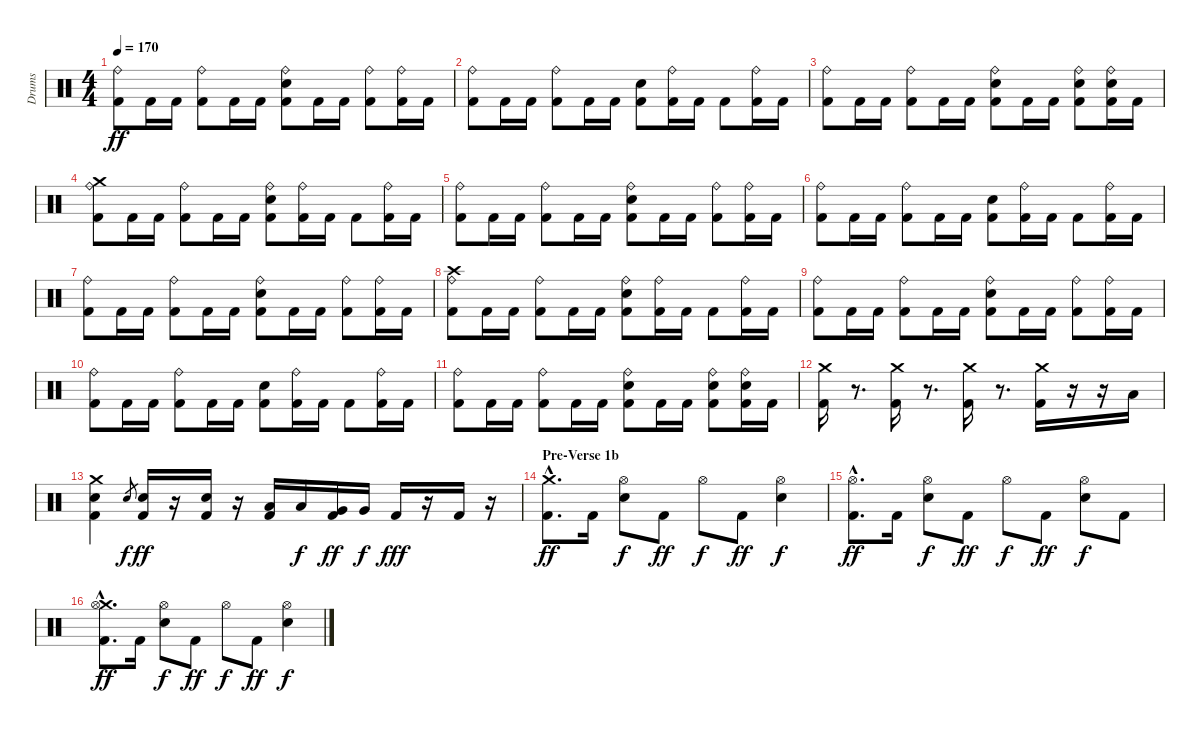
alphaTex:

\track ("Drums" "Drums") {instrument percussion}
\staff {score}
\articulation defaults
\ts (4 4)
\tempo 170
\clef neutral
\ks c
("Ride (bell)" "Kick (hit) 2").8{dy ff} "Kick (hit) 2".16 "Kick (hit) 2".16 ("Ride (bell)" "Kick (hit) 2").8 "Kick (hit) 2".16 "Kick (hit) 2".16 ("Ride (bell)" "Snare (hit) 2" "Kick (hit) 2").8 "Kick (hit) 2".16 "Kick (hit) 2".16 ("Ride (bell)" "Kick (hit) 2").8 ("Ride (bell)" "Kick (hit) 2").16 "Kick (hit) 2".16 |
("Ride (bell)" "Kick (hit) 2").8 "Kick (hit) 2".16 "Kick (hit) 2".16 ("Ride (bell)" "Kick (hit) 2").8 "Kick (hit) 2".16 "Kick (hit) 2".16 ("Snare (hit) 2" "Kick (hit) 2").8 ("Ride (bell)" "Kick (hit) 2").16 "Kick (hit) 2".16 "Kick (hit) 2".8 ("Ride (bell)" "Kick (hit) 2").16 "Kick (hit) 2".16 |
("Ride (bell)" "Kick (hit) 2").8 "Kick (hit) 2".16 "Kick (hit) 2".16 ("Ride (bell)" "Kick (hit) 2").8 "Kick (hit) 2".16 "Kick (hit) 2".16 ("Ride (bell)" "Snare (hit) 2" "Kick (hit) 2").8 "Kick (hit) 2".16 "Kick (hit) 2".16 ("Ride (bell)" "Snare (hit) 2" "Kick (hit) 2").8 ("Ride (bell)" "Snare (hit) 2" "Kick (hit) 2").16 "Kick (hit) 2".16 |
("Crash medium (hit)" "Ride (bell)" "Kick (hit) 2").8 "Kick (hit) 2".16 "Kick (hit) 2".16 ("Ride (bell)" "Kick (hit) 2").8 "Kick (hit) 2".16 "Kick (hit) 2".16 ("Ride (bell)" "Snare (hit) 2" "Kick (hit) 2").8 ("Ride (bell)" "Kick (hit) 2").16 "Kick (hit) 2".16 "Kick (hit) 2".8 ("Ride (bell)" "Kick (hit) 2").16 "Kick (hit) 2".16 |
("Ride (bell)" "Kick (hit) 2").8 "Kick (hit) 2".16 "Kick (hit) 2".16 ("Ride (bell)" "Kick (hit) 2").8 "Kick (hit) 2".16 "Kick (hit) 2".16 ("Ride (bell)" "Snare (hit) 2" "Kick (hit) 2").8 "Kick (hit) 2".16 "Kick (hit) 2".16 ("Ride (bell)" "Kick (hit) 2").8 ("Ride (bell)" "Kick (hit) 2").16 "Kick (hit) 2".16 |
("Ride (bell)" "Kick (hit) 2").8 "Kick (hit) 2".16 "Kick (hit) 2".16 ("Ride (bell)" "Kick (hit) 2").8 "Kick (hit) 2".16 "Kick (hit) 2".16 ("Snare (hit) 2" "Kick (hit) 2").8 ("Ride (bell)" "Kick (hit) 2").16 "Kick (hit) 2".16 "Kick (hit) 2".8 ("Ride (bell)" "Kick (hit) 2").16 "Kick (hit) 2".16 |
("Ride (bell)" "Kick (hit) 2").8 "Kick (hit) 2".16 "Kick (hit) 2".16 ("Ride (bell)" "Kick (hit) 2").8 "Kick (hit) 2".16 "Kick (hit) 2".16 ("Ride (bell)" "Snare (hit) 2" "Kick (hit) 2").8 "Kick (hit) 2".16 "Kick (hit) 2".16 ("Ride (bell)" "Kick (hit) 2").8 ("Ride (bell)" "Kick (hit) 2").16 "Kick (hit) 2".16 |
("Crash high (hit)" "Ride (bell)" "Kick (hit) 2").8 "Kick (hit) 2".16 "Kick (hit) 2".16 ("Ride (bell)" "Kick (hit) 2").8 "Kick (hit) 2".16 "Kick (hit) 2".16 ("Ride (bell)" "Snare (hit) 2" "Kick (hit) 2").8 ("Ride (bell)" "Kick (hit) 2").16 "Kick (hit) 2".16 "Kick (hit) 2".8 ("Ride (bell)" "Kick (hit) 2").16 "Kick (hit) 2".16 |
("Ride (bell)" "Kick (hit) 2").8 "Kick (hit) 2".16 "Kick (hit) 2".16 ("Ride (bell)" "Kick (hit) 2").8 "Kick (hit) 2".16 "Kick (hit) 2".16 ("Ride (bell)" "Snare (hit) 2" "Kick (hit) 2").8 "Kick (hit) 2".16 "Kick (hit) 2".16 ("Ride (bell)" "Kick (hit) 2").8 ("Ride (bell)" "Kick (hit) 2").16 "Kick (hit) 2".16 |
("Ride (bell)" "Kick (hit) 2").8 "Kick (hit) 2".16 "Kick (hit) 2".16 ("Ride (bell)" "Kick (hit) 2").8 "Kick (hit) 2".16 "Kick (hit) 2".16 ("Snare (hit) 2" "Kick (hit) 2").8 ("Ride (bell)" "Kick (hit) 2").16 "Kick (hit) 2".16 "Kick (hit) 2".8 ("Ride (bell)" "Kick (hit) 2").16 "Kick (hit) 2".16 |
("Ride (bell)" "Kick (hit) 2").8 "Kick (hit) 2".16 "Kick (hit) 2".16 ("Ride (bell)" "Kick (hit) 2").8 "Kick (hit) 2".16 "Kick (hit) 2".16 ("Ride (bell)" "Snare (hit) 2" "Kick (hit) 2").8 "Kick (hit) 2".16 "Kick (hit) 2".16 ("Ride (bell)" "Snare (hit) 2" "Kick (hit) 2").8 ("Ride (bell)" "Snare (hit) 2" "Kick (hit) 2").16 "Kick (hit) 2".16 |
("Crash medium (hit)" "Kick (hit) 2").16 r.8{d} ("Crash medium (hit)" "Kick (hit) 2").16 r.8{d} ("Crash medium (hit)" "Kick (hit) 2").16 r.8{d} ("Crash medium (hit)" "Kick (hit) 2").16 r.16 r.16 "Low Floor Tom (hit)".16 |
("Crash medium (hit)" "Snare (hit) 2" "Kick (hit) 2").4 "Snare (hit) 2".8{gr dy f} ("Snare (hit) 2" "Kick (hit) 2").16{dy ff} r.16 ("Snare (hit) 2" "Kick (hit) 2").16 r.16 ("Low Tom (hit)" "Kick (hit) 2").16 "Low Tom (hit)".16{dy f} ("Very Low Tom (hit)" "Kick (hit) 2").16{dy ff} "Very Low Tom (hit)".16{dy f} "Kick (hit) 2".16{dy fff} r.16 "Kick (hit) 2".16 r.16 |
\section ("" "Pre-Verse 1b")
("Crash medium (hit)"{hac} "Kick (hit) 2"{hac}).8{d dy ff} "Kick (hit) 2".16 ("Hi-Hat (open)" "Snare (hit) 2").8{dy f} "Kick (hit) 2".8{dy ff} "Hi-Hat (open)".8{dy f} "Kick (hit) 2".8{dy ff} ("Hi-Hat (open)" "Snare (hit) 2").4{dy f} |
("Hi-Hat (open)"{hac} "Kick (hit) 2"{hac}).8{d dy ff} "Kick (hit) 2".16 ("Hi-Hat (open)" "Snare (hit) 2").8{dy f} "Kick (hit) 2".8{dy ff} "Hi-Hat (open)".8{dy f} "Kick (hit) 2".8{dy ff} ("Hi-Hat (open)" "Snare (hit) 2").8{dy f} "Kick (hit) 2".8 |
("Crash medium (hit)"{hac} "Hi-Hat (open)"{hac} "Kick (hit) 2"{hac}).8{d dy ff} "Kick (hit) 2".16 ("Hi-Hat (open)" "Snare (hit) 2").8{dy f} "Kick (hit) 2".8{dy ff} "Hi-Hat (open)".8{dy f} "Kick (hit) 2".8{dy ff} ("Hi-Hat (open)" "Snare (hit) 2").4{dy f}
